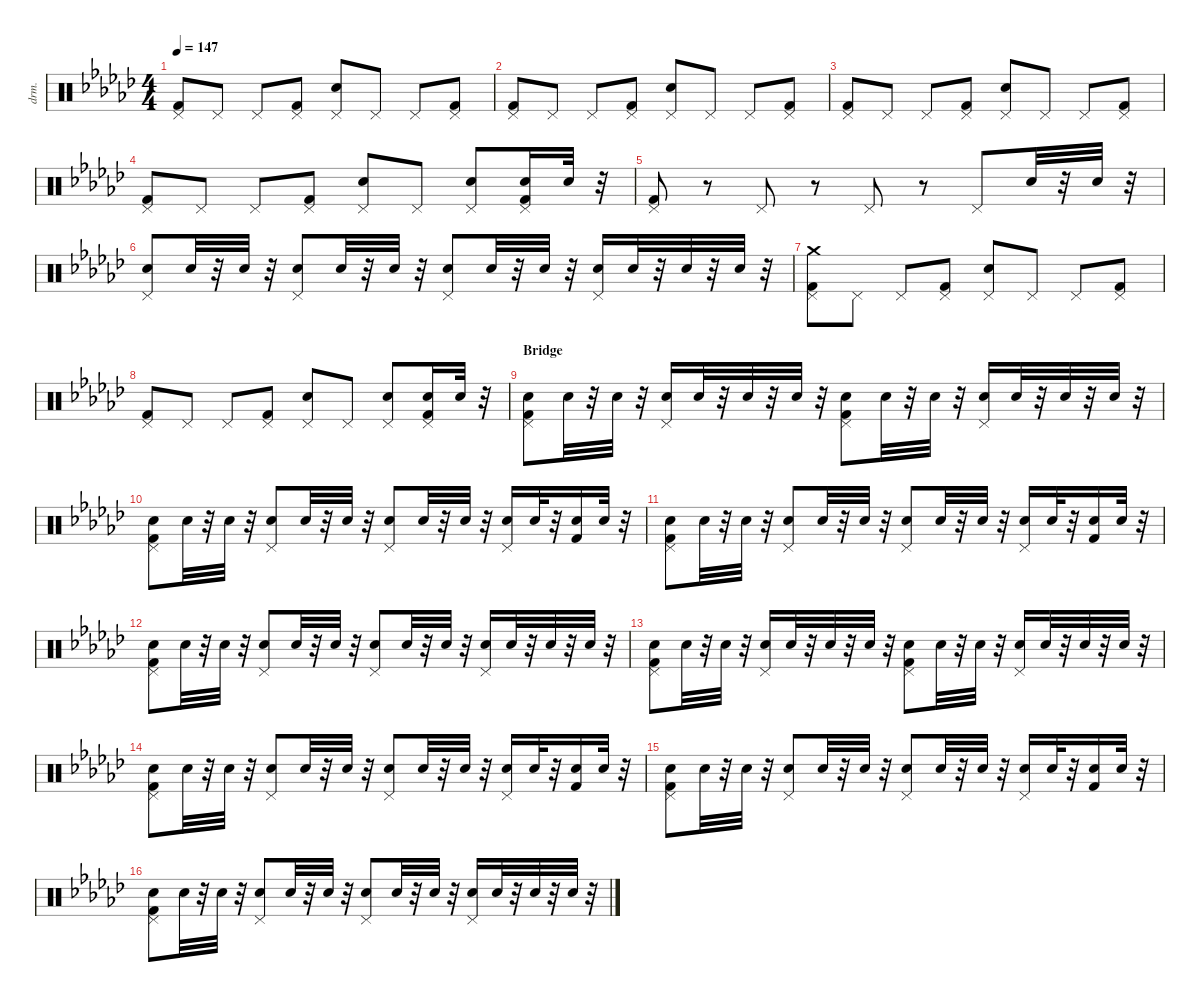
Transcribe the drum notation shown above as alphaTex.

\defaultSystemsLayout 4
\hideDynamics
\bracketExtendMode nobrackets
\otherSystemsTrackNameOrientation horizontal
\track ("Drums" "drm.") {instrument percussion}
\staff {score}
\articulation defaults
\ts (4 4)
\tempo 147
\clef neutral
\ks ebminor
("Pedal Hi-Hat (hit)"{acc forcenatural} "Kick (hit) 2"{acc forcenatural}).8{dy f beam Up} "Pedal Hi-Hat (hit)"{acc forcenatural}.8{dy mp beam Up} "Pedal Hi-Hat (hit)"{acc forcenatural}.8{dy f beam Up} ("Pedal Hi-Hat (hit)"{acc forcenatural} "Kick (hit) 2"{acc forcenatural}).8{dy mp beam Up} ("Pedal Hi-Hat (hit)"{acc forcenatural} "Snare (hit) 2"{acc forcenatural}).8{dy f beam Up} "Pedal Hi-Hat (hit)"{acc forcenatural}.8{dy mp beam Up} "Pedal Hi-Hat (hit)"{acc forcenatural}.8{dy f beam Up} ("Pedal Hi-Hat (hit)"{acc forcenatural} "Kick (hit) 2"{acc forcenatural}).8{dy mp beam Up} |
("Pedal Hi-Hat (hit)"{acc forcenatural} "Kick (hit) 2"{acc forcenatural}).8{dy f beam Up} "Pedal Hi-Hat (hit)"{acc forcenatural}.8{dy mp beam Up} "Pedal Hi-Hat (hit)"{acc forcenatural}.8{dy f beam Up} ("Pedal Hi-Hat (hit)"{acc forcenatural} "Kick (hit) 2"{acc forcenatural}).8{dy mp beam Up} ("Pedal Hi-Hat (hit)"{acc forcenatural} "Snare (hit) 2"{acc forcenatural}).8{dy f beam Up} "Pedal Hi-Hat (hit)"{acc forcenatural}.8{dy mp beam Up} "Pedal Hi-Hat (hit)"{acc forcenatural}.8{dy f beam Up} ("Pedal Hi-Hat (hit)"{acc forcenatural} "Kick (hit) 2"{acc forcenatural}).8{dy mp beam Up} |
("Pedal Hi-Hat (hit)"{acc forcenatural} "Kick (hit) 2"{acc forcenatural}).8{dy f beam Up} "Pedal Hi-Hat (hit)"{acc forcenatural}.8{dy mp beam Up} "Pedal Hi-Hat (hit)"{acc forcenatural}.8{dy f beam Up} ("Pedal Hi-Hat (hit)"{acc forcenatural} "Kick (hit) 2"{acc forcenatural}).8{dy mp beam Up} ("Pedal Hi-Hat (hit)"{acc forcenatural} "Snare (hit) 2"{acc forcenatural}).8{dy f beam Up} "Pedal Hi-Hat (hit)"{acc forcenatural}.8{dy mp beam Up} "Pedal Hi-Hat (hit)"{acc forcenatural}.8{dy f beam Up} ("Pedal Hi-Hat (hit)"{acc forcenatural} "Kick (hit) 2"{acc forcenatural}).8{dy mp beam Up} |
("Pedal Hi-Hat (hit)"{acc forcenatural} "Kick (hit) 2"{acc forcenatural}).8{dy f beam Up} "Pedal Hi-Hat (hit)"{acc forcenatural}.8{dy mp beam Up} "Pedal Hi-Hat (hit)"{acc forcenatural}.8{dy f beam Up} ("Pedal Hi-Hat (hit)"{acc forcenatural} "Kick (hit) 2"{acc forcenatural}).8{dy mp beam Up} ("Pedal Hi-Hat (hit)"{acc forcenatural} "Snare (hit) 2"{acc forcenatural}).8{dy f beam Up} "Pedal Hi-Hat (hit)"{acc forcenatural}.8{dy mp beam Up} ("Pedal Hi-Hat (hit)"{acc forcenatural} "Snare (hit) 2"{acc forcenatural}).8{dy f beam Up} ("Pedal Hi-Hat (hit)"{acc forcenatural} "Snare (hit) 2"{acc forcenatural} "Kick (hit) 2"{acc forcenatural}).16{dy mp beam Up} "Snare (hit) 2"{acc forcenatural}.32{dy f beam Up} r.32{beam Up} |
("Pedal Hi-Hat (hit)"{acc forcenatural} "Kick (hit) 2"{acc forcenatural}).8{beam Up} r.8{beam Up} "Pedal Hi-Hat (hit)"{acc forcenatural}.8{beam Up} r.8{beam Up} "Pedal Hi-Hat (hit)"{acc forcenatural}.8{beam Up} r.8{beam Up} "Pedal Hi-Hat (hit)"{acc forcenatural}.8{beam Up} "Snare (hit) 2"{acc forcenatural}.32{dy mf beam Up} r.32{beam Up} "Snare (hit) 2"{acc forcenatural}.32{beam Up} r.32{beam Up} |
("Pedal Hi-Hat (hit)"{acc forcenatural} "Snare (hit) 2"{acc forcenatural}).8{dy f beam Up} "Snare (hit) 2"{acc forcenatural}.32{dy mf beam Up} r.32{beam Up} "Snare (hit) 2"{acc forcenatural}.32{beam Up} r.32{beam Up} ("Pedal Hi-Hat (hit)"{acc forcenatural} "Snare (hit) 2"{acc forcenatural}).8{dy f beam Up} "Snare (hit) 2"{acc forcenatural}.32{dy mf beam Up} r.32{beam Up} "Snare (hit) 2"{acc forcenatural}.32{beam Up} r.32{beam Up} ("Pedal Hi-Hat (hit)"{acc forcenatural} "Snare (hit) 2"{acc forcenatural}).8{dy f beam Up} "Snare (hit) 2"{acc forcenatural}.32{dy mf beam Up} r.32{beam Up} "Snare (hit) 2"{acc forcenatural}.32{beam Up} r.32{beam Up} ("Pedal Hi-Hat (hit)"{acc forcenatural} "Snare (hit) 2"{acc forcenatural}).16{dy f beam Up} "Snare (hit) 2"{acc forcenatural}.32{dy mf beam Up} r.32{beam Up} "Snare (hit) 2"{acc forcenatural}.32{beam Up} r.32{beam Up} "Snare (hit) 2"{acc forcenatural}.32{beam Up} r.32{beam Up} |
("Pedal Hi-Hat (hit)"{acc forcenatural} "Kick (hit) 2"{acc forcenatural} "Crash medium (hit)"{acc forcenatural}).8{dy f beam Down} "Pedal Hi-Hat (hit)"{acc forcenatural}.8{dy mp beam Down} "Pedal Hi-Hat (hit)"{acc forcenatural}.8{dy f beam Up} ("Pedal Hi-Hat (hit)"{acc forcenatural} "Kick (hit) 2"{acc forcenatural}).8{dy mp beam Up} ("Pedal Hi-Hat (hit)"{acc forcenatural} "Snare (hit) 2"{acc forcenatural}).8{dy f beam Up} "Pedal Hi-Hat (hit)"{acc forcenatural}.8{dy mp beam Up} "Pedal Hi-Hat (hit)"{acc forcenatural}.8{dy f beam Up} ("Pedal Hi-Hat (hit)"{acc forcenatural} "Kick (hit) 2"{acc forcenatural}).8{dy mp beam Up} |
("Pedal Hi-Hat (hit)"{acc forcenatural} "Kick (hit) 2"{acc forcenatural}).8{dy f beam Up} "Pedal Hi-Hat (hit)"{acc forcenatural}.8{dy mp beam Up} "Pedal Hi-Hat (hit)"{acc forcenatural}.8{dy f beam Up} ("Pedal Hi-Hat (hit)"{acc forcenatural} "Kick (hit) 2"{acc forcenatural}).8{dy mp beam Up} ("Pedal Hi-Hat (hit)"{acc forcenatural} "Snare (hit) 2"{acc forcenatural}).8{dy f beam Up} "Pedal Hi-Hat (hit)"{acc forcenatural}.8{dy mp beam Up} ("Pedal Hi-Hat (hit)"{acc forcenatural} "Snare (hit) 2"{acc forcenatural}).8{dy f beam Up} ("Pedal Hi-Hat (hit)"{acc forcenatural} "Snare (hit) 2"{acc forcenatural} "Kick (hit) 2"{acc forcenatural}).16{dy mp beam Up} "Snare (hit) 2"{acc forcenatural}.32{dy f beam Up} r.32{beam Up} |
\section ("" "Bridge")
("Pedal Hi-Hat (hit)"{acc forcenatural} "Kick (hit) 2"{acc forcenatural} "Snare (hit) 2"{acc forcenatural}).8{beam Down} "Snare (hit) 2"{acc forcenatural}.32{dy mf beam Down} r.32{beam Down} "Snare (hit) 2"{acc forcenatural}.32{beam Down} r.32{beam Down} ("Pedal Hi-Hat (hit)"{acc forcenatural} "Snare (hit) 2"{acc forcenatural}).16{dy f beam Up} "Snare (hit) 2"{acc forcenatural}.32{dy mf beam Up} r.32{beam Up} "Snare (hit) 2"{acc forcenatural}.32{beam Up} r.32{beam Up} "Snare (hit) 2"{acc forcenatural}.32{beam Up} r.32{beam Up} ("Pedal Hi-Hat (hit)"{acc forcenatural} "Kick (hit) 2"{acc forcenatural} "Snare (hit) 2"{acc forcenatural}).8{dy f beam Down} "Snare (hit) 2"{acc forcenatural}.32{dy mf beam Down} r.32{beam Down} "Snare (hit) 2"{acc forcenatural}.32{beam Down} r.32{beam Down} ("Pedal Hi-Hat (hit)"{acc forcenatural} "Snare (hit) 2"{acc forcenatural}).16{dy f beam Up} "Snare (hit) 2"{acc forcenatural}.32{dy mf beam Up} r.32{beam Up} "Snare (hit) 2"{acc forcenatural}.32{beam Up} r.32{beam Up} "Snare (hit) 2"{acc forcenatural}.32{beam Up} r.32{beam Up} |
("Pedal Hi-Hat (hit)"{acc forcenatural} "Kick (hit) 2"{acc forcenatural} "Snare (hit) 2"{acc forcenatural}).8{dy f beam Down} "Snare (hit) 2"{acc forcenatural}.32{dy mf beam Down} r.32{beam Down} "Snare (hit) 2"{acc forcenatural}.32{beam Down} r.32{beam Down} ("Pedal Hi-Hat (hit)"{acc forcenatural} "Snare (hit) 2"{acc forcenatural}).8{dy f beam Up} "Snare (hit) 2"{acc forcenatural}.32{dy mf beam Up} r.32{beam Up} "Snare (hit) 2"{acc forcenatural}.32{beam Up} r.32{beam Up} ("Pedal Hi-Hat (hit)"{acc forcenatural} "Snare (hit) 2"{acc forcenatural}).8{dy f beam Up} "Snare (hit) 2"{acc forcenatural}.32{dy mf beam Up} r.32{beam Up} "Snare (hit) 2"{acc forcenatural}.32{beam Up} r.32{beam Up} ("Pedal Hi-Hat (hit)"{acc forcenatural} "Snare (hit) 2"{acc forcenatural}).16{dy f beam Up} "Snare (hit) 2"{acc forcenatural}.32{dy mf beam Up} r.32{beam Up} ("Kick (hit) 2"{acc forcenatural} "Snare (hit) 2"{acc forcenatural}).16{dy f beam Up} "Snare (hit) 2"{acc forcenatural}.32{dy mf beam Up} r.32{beam Up} |
("Pedal Hi-Hat (hit)"{acc forcenatural} "Kick (hit) 2"{acc forcenatural} "Snare (hit) 2"{acc forcenatural}).8{dy f beam Down} "Snare (hit) 2"{acc forcenatural}.32{dy mf beam Down} r.32{beam Down} "Snare (hit) 2"{acc forcenatural}.32{beam Down} r.32{beam Down} ("Pedal Hi-Hat (hit)"{acc forcenatural} "Snare (hit) 2"{acc forcenatural}).8{dy f beam Up} "Snare (hit) 2"{acc forcenatural}.32{dy mf beam Up} r.32{beam Up} "Snare (hit) 2"{acc forcenatural}.32{beam Up} r.32{beam Up} ("Pedal Hi-Hat (hit)"{acc forcenatural} "Snare (hit) 2"{acc forcenatural}).8{dy f beam Up} "Snare (hit) 2"{acc forcenatural}.32{dy mf beam Up} r.32{beam Up} "Snare (hit) 2"{acc forcenatural}.32{beam Up} r.32{beam Up} ("Pedal Hi-Hat (hit)"{acc forcenatural} "Snare (hit) 2"{acc forcenatural}).16{dy f beam Up} "Snare (hit) 2"{acc forcenatural}.32{dy mf beam Up} r.32{beam Up} ("Kick (hit) 2"{acc forcenatural} "Snare (hit) 2"{acc forcenatural}).16{dy f beam Up} "Snare (hit) 2"{acc forcenatural}.32{dy mf beam Up} r.32{beam Up} |
("Pedal Hi-Hat (hit)"{acc forcenatural} "Kick (hit) 2"{acc forcenatural} "Snare (hit) 2"{acc forcenatural}).8{dy f beam Down} "Snare (hit) 2"{acc forcenatural}.32{dy mf beam Down} r.32{beam Down} "Snare (hit) 2"{acc forcenatural}.32{beam Down} r.32{beam Down} ("Pedal Hi-Hat (hit)"{acc forcenatural} "Snare (hit) 2"{acc forcenatural}).8{dy f beam Up} "Snare (hit) 2"{acc forcenatural}.32{dy mf beam Up} r.32{beam Up} "Snare (hit) 2"{acc forcenatural}.32{beam Up} r.32{beam Up} ("Pedal Hi-Hat (hit)"{acc forcenatural} "Snare (hit) 2"{acc forcenatural}).8{dy f beam Up} "Snare (hit) 2"{acc forcenatural}.32{dy mf beam Up} r.32{beam Up} "Snare (hit) 2"{acc forcenatural}.32{beam Up} r.32{beam Up} ("Pedal Hi-Hat (hit)"{acc forcenatural} "Snare (hit) 2"{acc forcenatural}).16{dy f beam Up} "Snare (hit) 2"{acc forcenatural}.32{dy mf beam Up} r.32{beam Up} "Snare (hit) 2"{acc forcenatural}.32{beam Up} r.32{beam Up} "Snare (hit) 2"{acc forcenatural}.32{beam Up} r.32{beam Up} |
("Pedal Hi-Hat (hit)"{acc forcenatural} "Kick (hit) 2"{acc forcenatural} "Snare (hit) 2"{acc forcenatural}).8{dy f beam Down} "Snare (hit) 2"{acc forcenatural}.32{dy mf beam Down} r.32{beam Down} "Snare (hit) 2"{acc forcenatural}.32{beam Down} r.32{beam Down} ("Pedal Hi-Hat (hit)"{acc forcenatural} "Snare (hit) 2"{acc forcenatural}).16{dy f beam Up} "Snare (hit) 2"{acc forcenatural}.32{dy mf beam Up} r.32{beam Up} "Snare (hit) 2"{acc forcenatural}.32{beam Up} r.32{beam Up} "Snare (hit) 2"{acc forcenatural}.32{beam Up} r.32{beam Up} ("Pedal Hi-Hat (hit)"{acc forcenatural} "Kick (hit) 2"{acc forcenatural} "Snare (hit) 2"{acc forcenatural}).8{dy f beam Down} "Snare (hit) 2"{acc forcenatural}.32{dy mf beam Down} r.32{beam Down} "Snare (hit) 2"{acc forcenatural}.32{beam Down} r.32{beam Down} ("Pedal Hi-Hat (hit)"{acc forcenatural} "Snare (hit) 2"{acc forcenatural}).16{dy f beam Up} "Snare (hit) 2"{acc forcenatural}.32{dy mf beam Up} r.32{beam Up} "Snare (hit) 2"{acc forcenatural}.32{beam Up} r.32{beam Up} "Snare (hit) 2"{acc forcenatural}.32{beam Up} r.32{beam Up} |
("Pedal Hi-Hat (hit)"{acc forcenatural} "Kick (hit) 2"{acc forcenatural} "Snare (hit) 2"{acc forcenatural}).8{dy f beam Down} "Snare (hit) 2"{acc forcenatural}.32{dy mf beam Down} r.32{beam Down} "Snare (hit) 2"{acc forcenatural}.32{beam Down} r.32{beam Down} ("Pedal Hi-Hat (hit)"{acc forcenatural} "Snare (hit) 2"{acc forcenatural}).8{dy f beam Up} "Snare (hit) 2"{acc forcenatural}.32{dy mf beam Up} r.32{beam Up} "Snare (hit) 2"{acc forcenatural}.32{beam Up} r.32{beam Up} ("Pedal Hi-Hat (hit)"{acc forcenatural} "Snare (hit) 2"{acc forcenatural}).8{dy f beam Up} "Snare (hit) 2"{acc forcenatural}.32{dy mf beam Up} r.32{beam Up} "Snare (hit) 2"{acc forcenatural}.32{beam Up} r.32{beam Up} ("Pedal Hi-Hat (hit)"{acc forcenatural} "Snare (hit) 2"{acc forcenatural}).16{dy f beam Up} "Snare (hit) 2"{acc forcenatural}.32{dy mf beam Up} r.32{beam Up} ("Kick (hit) 2"{acc forcenatural} "Snare (hit) 2"{acc forcenatural}).16{dy f beam Up} "Snare (hit) 2"{acc forcenatural}.32{dy mf beam Up} r.32{beam Up} |
("Pedal Hi-Hat (hit)"{acc forcenatural} "Kick (hit) 2"{acc forcenatural} "Snare (hit) 2"{acc forcenatural}).8{dy f beam Down} "Snare (hit) 2"{acc forcenatural}.32{dy mf beam Down} r.32{beam Down} "Snare (hit) 2"{acc forcenatural}.32{beam Down} r.32{beam Down} ("Pedal Hi-Hat (hit)"{acc forcenatural} "Snare (hit) 2"{acc forcenatural}).8{dy f beam Up} "Snare (hit) 2"{acc forcenatural}.32{dy mf beam Up} r.32{beam Up} "Snare (hit) 2"{acc forcenatural}.32{beam Up} r.32{beam Up} ("Pedal Hi-Hat (hit)"{acc forcenatural} "Snare (hit) 2"{acc forcenatural}).8{dy f beam Up} "Snare (hit) 2"{acc forcenatural}.32{dy mf beam Up} r.32{beam Up} "Snare (hit) 2"{acc forcenatural}.32{beam Up} r.32{beam Up} ("Pedal Hi-Hat (hit)"{acc forcenatural} "Snare (hit) 2"{acc forcenatural}).16{dy f beam Up} "Snare (hit) 2"{acc forcenatural}.32{dy mf beam Up} r.32{beam Up} ("Kick (hit) 2"{acc forcenatural} "Snare (hit) 2"{acc forcenatural}).16{dy f beam Up} "Snare (hit) 2"{acc forcenatural}.32{dy mf beam Up} r.32{beam Up} |
("Pedal Hi-Hat (hit)"{acc forcenatural} "Kick (hit) 2"{acc forcenatural} "Snare (hit) 2"{acc forcenatural}).8{dy f beam Down} "Snare (hit) 2"{acc forcenatural}.32{dy mf beam Down} r.32{beam Down} "Snare (hit) 2"{acc forcenatural}.32{beam Down} r.32{beam Down} ("Pedal Hi-Hat (hit)"{acc forcenatural} "Snare (hit) 2"{acc forcenatural}).8{dy f beam Up} "Snare (hit) 2"{acc forcenatural}.32{dy mf beam Up} r.32{beam Up} "Snare (hit) 2"{acc forcenatural}.32{beam Up} r.32{beam Up} ("Pedal Hi-Hat (hit)"{acc forcenatural} "Snare (hit) 2"{acc forcenatural}).8{dy f beam Up} "Snare (hit) 2"{acc forcenatural}.32{dy mf beam Up} r.32{beam Up} "Snare (hit) 2"{acc forcenatural}.32{beam Up} r.32{beam Up} ("Pedal Hi-Hat (hit)"{acc forcenatural} "Snare (hit) 2"{acc forcenatural}).16{dy f beam Up} "Snare (hit) 2"{acc forcenatural}.32{dy mf beam Up} r.32{beam Up} "Snare (hit) 2"{acc forcenatural}.32{beam Up} r.32{beam Up} "Snare (hit) 2"{acc forcenatural}.32{beam Up} r.32{beam Up}
